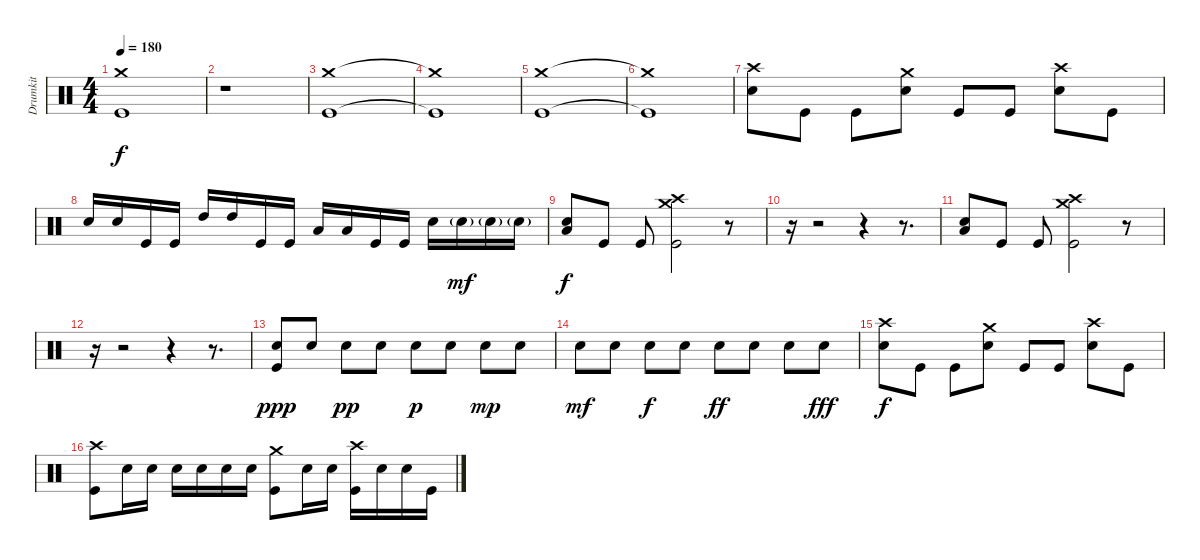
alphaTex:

\track ("Drumkit" "Drumkit") {instrument percussion}
\staff {score}
\articulation defaults
\ts (4 4)
\tempo 180
\clef neutral
\ks c
("Crash medium (hit)" "Kick (hit)").1{dy f} |
r.1 |
("Crash medium (hit)" "Kick (hit)").1 |
("Crash medium (hit)"{t} "Kick (hit)"{t}).1 |
("Crash medium (hit)" "Kick (hit)").1 |
("Crash medium (hit)"{t} "Kick (hit)"{t}).1 |
("Crash high (hit)" "Snare (hit) 2").8 "Kick (hit)".8 "Kick (hit)".8 ("Crash medium (hit)" "Snare (hit) 2").8 "Kick (hit)".8 "Kick (hit)".8 ("Crash high (hit)" "Snare (hit) 2").8 "Kick (hit)".8 |
"Snare (hit) 2".16 "Snare (hit) 2".16 "Kick (hit)".16 "Kick (hit)".16 "High Tom (hit)".16 "High Tom (hit)".16 "Kick (hit)".16 "Kick (hit)".16 "Low Tom (hit)".16 "Low Tom (hit)".16 "Kick (hit)".16 "Kick (hit)".16 "Snare (hit) 2".16 "Snare (hit) 2"{g}.16{dy mf} "Snare (hit) 2"{g}.16 "Snare (hit) 2"{g}.16 |
("Snare (hit) 2" "Low Floor Tom (hit)").8{dy f} "Kick (hit)".8 "Kick (hit)".8 ("Crash medium (hit)" "Crash high (hit)" "Kick (hit)").2 r.8 |
r.16 r.2 r.4 r.8{d} |
("Snare (hit) 2" "Low Floor Tom (hit)").8 "Kick (hit)".8 "Kick (hit)".8 ("Crash medium (hit)" "Crash high (hit)" "Kick (hit)").2 r.8 |
r.16 r.2 r.4 r.8{d} |
("Snare (hit) 2" "Kick (hit)").8{dy ppp} "Snare (hit) 2".8 "Snare (hit) 2".8{dy pp} "Snare (hit) 2".8 "Snare (hit) 2".8{dy p} "Snare (hit) 2".8 "Snare (hit) 2".8{dy mp} "Snare (hit) 2".8 |
"Snare (hit) 2".8{dy mf} "Snare (hit) 2".8 "Snare (hit) 2".8{dy f} "Snare (hit) 2".8 "Snare (hit) 2".8{dy ff} "Snare (hit) 2".8 "Snare (hit) 2".8 "Snare (hit) 2".8{dy fff} |
("Crash high (hit)" "Snare (hit) 2").8{dy f} "Kick (hit)".8 "Kick (hit)".8 ("Crash medium (hit)" "Snare (hit) 2").8 "Kick (hit)".8 "Kick (hit)".8 ("Crash high (hit)" "Snare (hit) 2").8 "Kick (hit)".8 |
("Crash high (hit)" "Kick (hit)").8 "Snare (hit) 2".16 "Snare (hit) 2".16 "Snare (hit) 2".16 "Snare (hit) 2".16 "Snare (hit) 2".16 "Snare (hit) 2".16 ("Crash medium (hit)" "Kick (hit)").8 "Snare (hit) 2".16 "Snare (hit) 2".16 ("Crash high (hit)" "Kick (hit)").16 "Snare (hit) 2".16 "Snare (hit) 2".16 "Kick (hit)".16
